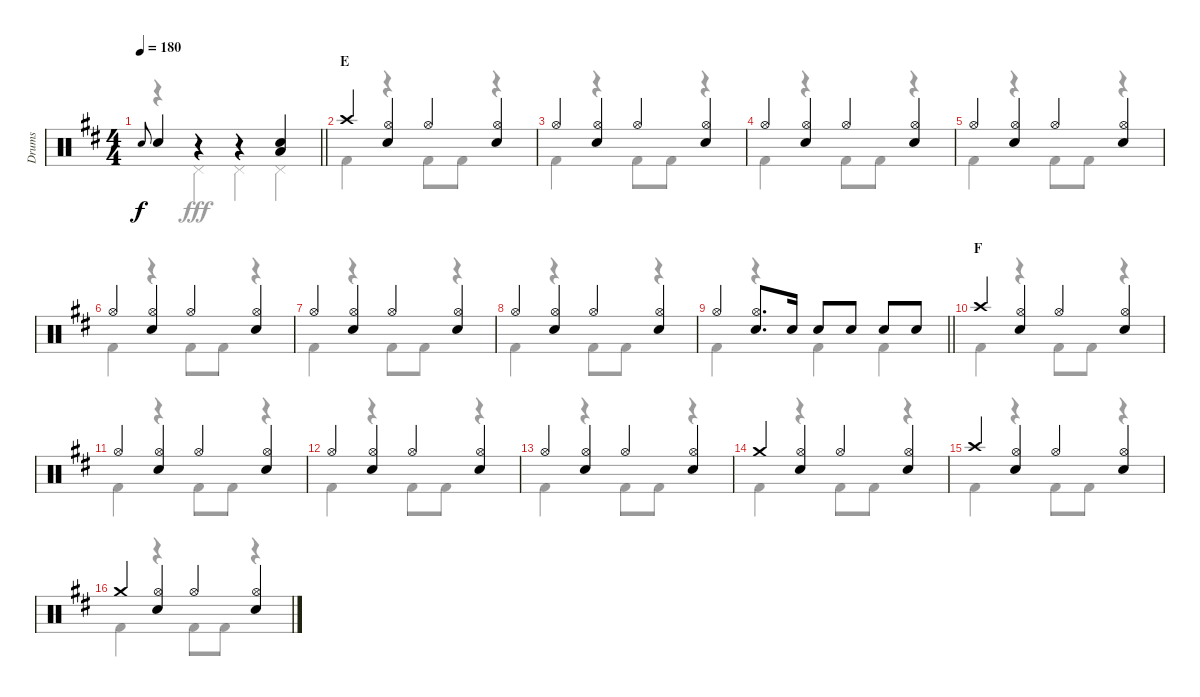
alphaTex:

\track ("Drums" "Drums") {instrument percussion}
\staff {score}
\articulation defaults
\voice
\ts (4 4)
\tempo 180
\clef neutral
\barLineRight lightlight
\ks d "Snare (hit) 2".8{gr onbeat dy f} "Snare (hit) 2".4
r.4 r.4 ("Snare (hit) 2" "Low Tom (hit)").4 |
\section ("" "E")
"Crash high (hit)".4 ("Hi-Hat (open)" "Snare (hit) 2").4 "Hi-Hat (open)".4 ("Hi-Hat (open)" "Snare (hit) 2").4 |
"Hi-Hat (open)".4 ("Hi-Hat (open)" "Snare (hit) 2").4 "Hi-Hat (open)".4 ("Hi-Hat (open)" "Snare (hit) 2").4 |
"Hi-Hat (open)".4 ("Hi-Hat (open)" "Snare (hit) 2").4 "Hi-Hat (open)".4 ("Hi-Hat (open)" "Snare (hit) 2").4 |
"Hi-Hat (open)".4 ("Hi-Hat (open)" "Snare (hit) 2").4 "Hi-Hat (open)".4 ("Hi-Hat (open)" "Snare (hit) 2").4 |
"Hi-Hat (open)".4 ("Hi-Hat (open)" "Snare (hit) 2").4 "Hi-Hat (open)".4 ("Hi-Hat (open)" "Snare (hit) 2").4 |
"Hi-Hat (open)".4 ("Hi-Hat (open)" "Snare (hit) 2").4 "Hi-Hat (open)".4 ("Hi-Hat (open)" "Snare (hit) 2").4 |
"Hi-Hat (open)".4 ("Hi-Hat (open)" "Snare (hit) 2").4 "Hi-Hat (open)".4 ("Hi-Hat (open)" "Snare (hit) 2").4 |
\barLineRight lightlight "Hi-Hat (open)".4
("Hi-Hat (open)" "Snare (hit) 2").8{d} "Snare (hit) 2".16 "Snare (hit) 2".8 "Snare (hit) 2".8 "Snare (hit) 2".8 "Snare (hit) 2".8 |
\section ("" "F")
"Crash high (hit)".4 ("Hi-Hat (open)" "Snare (hit) 2").4 "Hi-Hat (open)".4 ("Hi-Hat (open)" "Snare (hit) 2").4 |
"Hi-Hat (open)".4 ("Hi-Hat (open)" "Snare (hit) 2").4 "Hi-Hat (open)".4 ("Hi-Hat (open)" "Snare (hit) 2").4 |
"Hi-Hat (open)".4 ("Hi-Hat (open)" "Snare (hit) 2").4 "Hi-Hat (open)".4 ("Hi-Hat (open)" "Snare (hit) 2").4 |
"Hi-Hat (open)".4 ("Hi-Hat (open)" "Snare (hit) 2").4 "Hi-Hat (open)".4 ("Hi-Hat (open)" "Snare (hit) 2").4 |
"Crash medium (hit)".4 ("Hi-Hat (open)" "Snare (hit) 2").4 "Hi-Hat (open)".4 ("Hi-Hat (open)" "Snare (hit) 2").4 |
"Crash high (hit)".4 ("Hi-Hat (open)" "Snare (hit) 2").4 "Hi-Hat (open)".4 ("Hi-Hat (open)" "Snare (hit) 2").4 |
"Crash medium (hit)".4 ("Hi-Hat (open)" "Snare (hit) 2").4 "Hi-Hat (open)".4 ("Hi-Hat (open)" "Snare (hit) 2").4
\voice
\clef neutral
\ottava regular
\simile none
\barLineRight lightlight
\ks d
r.4{dy fff} "Pedal Hi-Hat (hit)".4 "Pedal Hi-Hat (hit)".4 "Pedal Hi-Hat (hit)".4 |
"Kick (hit) 2".4 r.4 "Kick (hit) 2".8 "Kick (hit) 2".8 r.4 |
"Kick (hit) 2".4 r.4 "Kick (hit) 2".8 "Kick (hit) 2".8 r.4 |
"Kick (hit) 2".4 r.4 "Kick (hit) 2".8 "Kick (hit) 2".8 r.4 |
"Kick (hit) 2".4 r.4 "Kick (hit) 2".8 "Kick (hit) 2".8 r.4 |
"Kick (hit) 2".4 r.4 "Kick (hit) 2".8 "Kick (hit) 2".8 r.4 |
"Kick (hit) 2".4 r.4 "Kick (hit) 2".8 "Kick (hit) 2".8 r.4 |
"Kick (hit) 2".4 r.4 "Kick (hit) 2".8 "Kick (hit) 2".8 r.4 |
\barLineRight lightlight "Kick (hit) 2".4
r.4 "Kick (hit) 2".4 "Kick (hit) 2".4 |
"Kick (hit) 2".4 r.4 "Kick (hit) 2".8 "Kick (hit) 2".8 r.4 |
"Kick (hit) 2".4 r.4 "Kick (hit) 2".8 "Kick (hit) 2".8 r.4 |
"Kick (hit) 2".4 r.4 "Kick (hit) 2".8 "Kick (hit) 2".8 r.4 |
"Kick (hit) 2".4 r.4 "Kick (hit) 2".8 "Kick (hit) 2".8 r.4 |
"Kick (hit) 2".4 r.4 "Kick (hit) 2".8 "Kick (hit) 2".8 r.4 |
"Kick (hit) 2".4 r.4 "Kick (hit) 2".8 "Kick (hit) 2".8 r.4 |
"Kick (hit) 2".4 r.4 "Kick (hit) 2".8 "Kick (hit) 2".8 r.4
